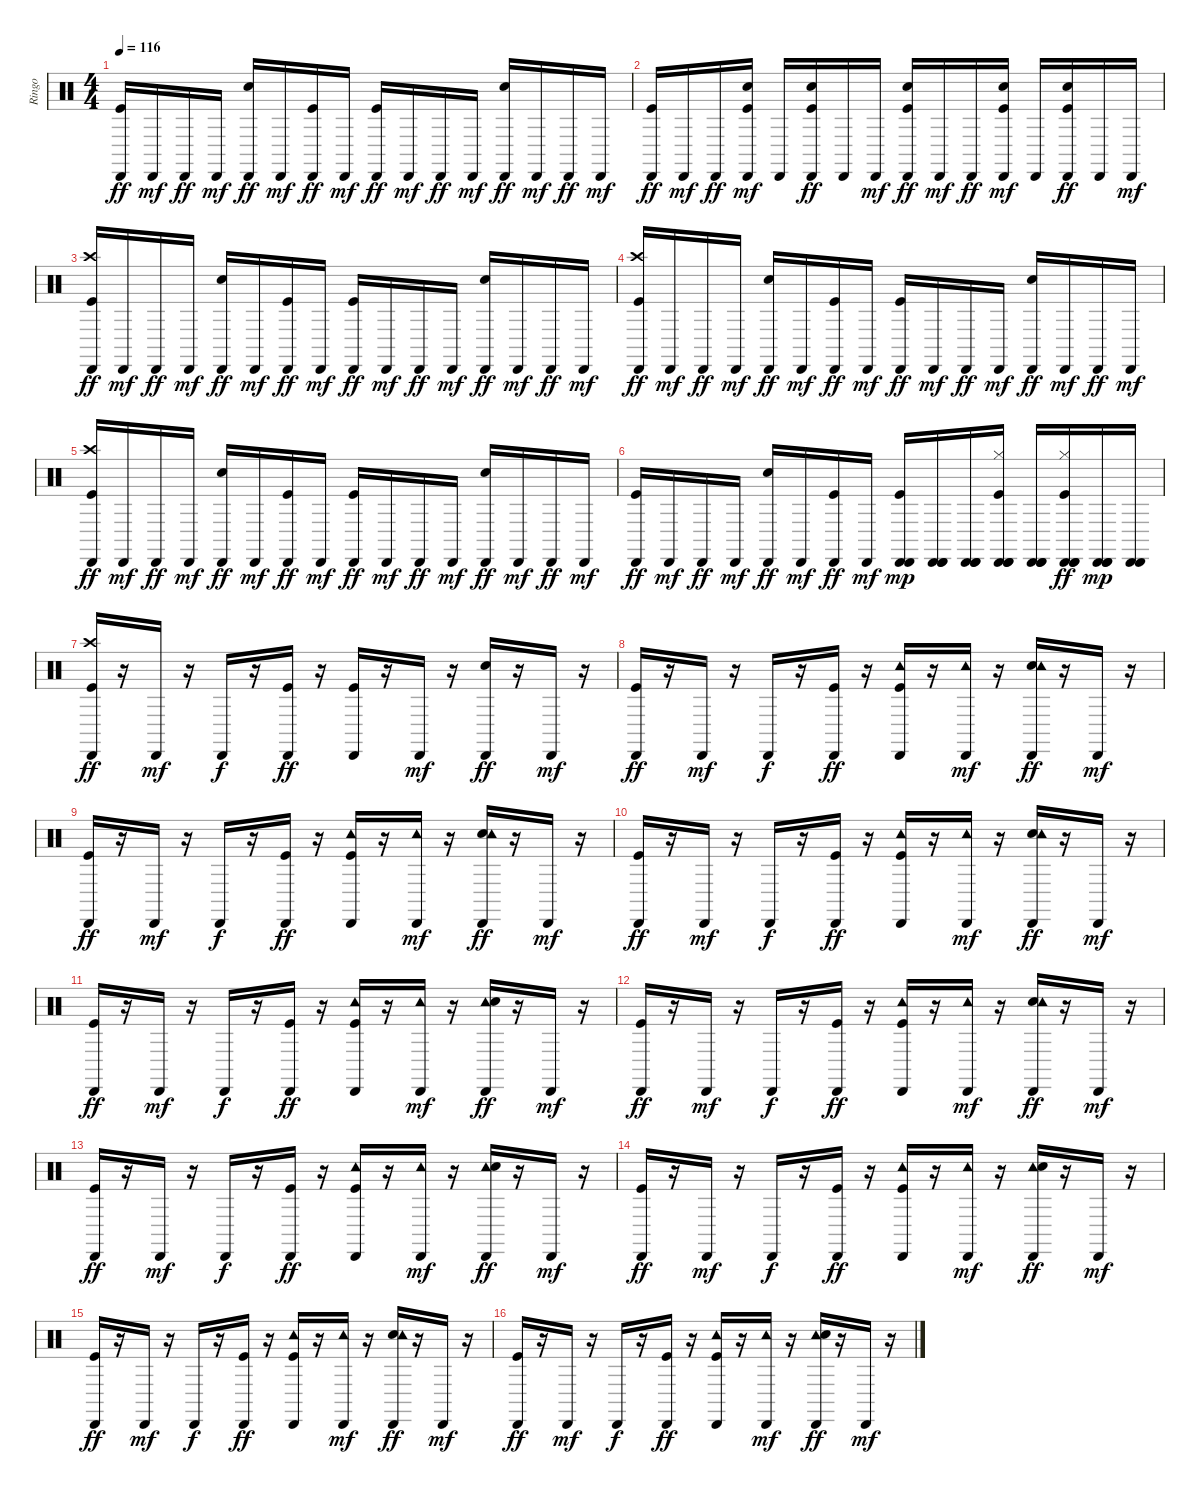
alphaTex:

\track ("Ringo" "Ringo") {instrument percussion}
\staff {score}
\articulation defaults
\ts (4 4)
\tempo 116
\clef neutral
\ks c
("Cabasa (hit)" "Kick (hit)").16{dy ff} "Cabasa (hit)".16{dy mf} "Cabasa (hit)".16{dy ff} "Cabasa (hit)".16{dy mf} ("Cabasa (hit)" "Snare (hit) 2").16{dy ff} "Cabasa (hit)".16{dy mf} ("Cabasa (hit)" "Kick (hit)").16{dy ff} "Cabasa (hit)".16{dy mf} ("Cabasa (hit)" "Kick (hit)").16{dy ff} "Cabasa (hit)".16{dy mf} "Cabasa (hit)".16{dy ff} "Cabasa (hit)".16{dy mf} ("Cabasa (hit)" "Snare (hit) 2").16{dy ff} "Cabasa (hit)".16{dy mf} "Cabasa (hit)".16{dy ff} "Cabasa (hit)".16{dy mf} |
("Cabasa (hit)" "Kick (hit)").16{dy ff} "Cabasa (hit)".16{dy mf} "Cabasa (hit)".16{dy ff} ("Kick (hit)" "Snare (hit) 2" "Cabasa (hit)").16{dy mf} "Cabasa (hit)".16 ("Cabasa (hit)" "Kick (hit)" "Snare (hit) 2").16{dy ff} "Cabasa (hit)".16 "Cabasa (hit)".16{dy mf} ("Cabasa (hit)" "Kick (hit)" "Snare (hit) 2").16{dy ff} "Cabasa (hit)".16{dy mf} "Cabasa (hit)".16{dy ff} ("Kick (hit)" "Snare (hit) 2" "Cabasa (hit)").16{dy mf} "Cabasa (hit)".16 ("Cabasa (hit)" "Kick (hit)" "Snare (hit) 2").16{dy ff} "Cabasa (hit)".16 "Cabasa (hit)".16{dy mf} |
("Cabasa (hit)" "Crash high (hit)" "Kick (hit)").16{dy ff} "Cabasa (hit)".16{dy mf} "Cabasa (hit)".16{dy ff} "Cabasa (hit)".16{dy mf} ("Cabasa (hit)" "Snare (hit) 2").16{dy ff} "Cabasa (hit)".16{dy mf} ("Cabasa (hit)" "Kick (hit)").16{dy ff} "Cabasa (hit)".16{dy mf} ("Cabasa (hit)" "Kick (hit)").16{dy ff} "Cabasa (hit)".16{dy mf} "Cabasa (hit)".16{dy ff} "Cabasa (hit)".16{dy mf} ("Cabasa (hit)" "Snare (hit) 2").16{dy ff} "Cabasa (hit)".16{dy mf} "Cabasa (hit)".16{dy ff} "Cabasa (hit)".16{dy mf} |
("Cabasa (hit)" "Crash high (hit)" "Kick (hit)").16{dy ff} "Cabasa (hit)".16{dy mf} "Cabasa (hit)".16{dy ff} "Cabasa (hit)".16{dy mf} ("Cabasa (hit)" "Snare (hit) 2").16{dy ff} "Cabasa (hit)".16{dy mf} ("Cabasa (hit)" "Kick (hit)").16{dy ff} "Cabasa (hit)".16{dy mf} ("Cabasa (hit)" "Kick (hit)").16{dy ff} "Cabasa (hit)".16{dy mf} "Cabasa (hit)".16{dy ff} "Cabasa (hit)".16{dy mf} ("Cabasa (hit)" "Snare (hit) 2").16{dy ff} "Cabasa (hit)".16{dy mf} "Cabasa (hit)".16{dy ff} "Cabasa (hit)".16{dy mf} |
("Cabasa (hit)" "Kick (hit)" "Crash high (hit)").16{dy ff} "Cabasa (hit)".16{dy mf} "Cabasa (hit)".16{dy ff} "Cabasa (hit)".16{dy mf} ("Cabasa (hit)" "Snare (hit) 2").16{dy ff} "Cabasa (hit)".16{dy mf} ("Cabasa (hit)" "Kick (hit)").16{dy ff} "Cabasa (hit)".16{dy mf} ("Cabasa (hit)" "Kick (hit)").16{dy ff} "Cabasa (hit)".16{dy mf} "Cabasa (hit)".16{dy ff} "Cabasa (hit)".16{dy mf} ("Cabasa (hit)" "Snare (hit) 2").16{dy ff} "Cabasa (hit)".16{dy mf} "Cabasa (hit)".16{dy ff} "Cabasa (hit)".16{dy mf} |
("Cabasa (hit)" "Kick (hit)").16{dy ff} "Cabasa (hit)".16{dy mf} "Cabasa (hit)".16{dy ff} "Cabasa (hit)".16{dy mf} ("Cabasa (hit)" "Snare (hit) 2").16{dy ff} "Cabasa (hit)".16{dy mf} ("Cabasa (hit)" "Kick (hit)").16{dy ff} "Cabasa (hit)".16{dy mf} ("Cabasa (hit)" "Kick (hit)" "Cabasa (hit)").16{dy mp} ("Cabasa (hit)" "Cabasa (hit)" "Cabasa (hit)").16 ("Cabasa (hit)" "Cabasa (hit)" "Cabasa (hit)").16 ("Cabasa (hit)" "Kick (hit)" "Hi-Hat (closed)" "Cabasa (hit)" "Cabasa (hit)").16 ("Cabasa (hit)" "Cabasa (hit)" "Cabasa (hit)").16 ("Cabasa (hit)" "Cabasa (hit)" "Cabasa (hit)" "Hi-Hat (closed)" "Kick (hit)").16{dy ff} ("Cabasa (hit)" "Cabasa (hit)" "Cabasa (hit)").16{dy mp} ("Cabasa (hit)" "Cabasa (hit)").16 |
("Cabasa (hit)" "Crash high (hit)" "Kick (hit)").16{dy ff} r.16 "Cabasa (hit)".16{dy mf} r.16 "Cabasa (hit)".16{dy f} r.16 ("Cabasa (hit)" "Kick (hit)").16{dy ff} r.16 ("Cabasa (hit)" "Kick (hit)").16 r.16 "Cabasa (hit)".16{dy mf} r.16 ("Cabasa (hit)" "Snare (hit) 2").16{dy ff} r.16 "Cabasa (hit)".16{dy mf} r.16 |
("Cabasa (hit)" "Kick (hit)").16{dy ff} r.16 "Cabasa (hit)".16{dy mf} r.16 "Cabasa (hit)".16{dy f} r.16 ("Cabasa (hit)" "Kick (hit)").16{dy ff} r.16 ("Cabasa (hit)" "Kick (hit)" "Tambourine (hit)").16 r.16 ("Cabasa (hit)" "Tambourine (hit)").16{dy mf} r.16 ("Cabasa (hit)" "Snare (hit) 2" "Tambourine (hit)").16{dy ff} r.16 "Cabasa (hit)".16{dy mf} r.16 |
("Cabasa (hit)" "Kick (hit)").16{dy ff} r.16 "Cabasa (hit)".16{dy mf} r.16 "Cabasa (hit)".16{dy f} r.16 ("Cabasa (hit)" "Kick (hit)").16{dy ff} r.16 ("Cabasa (hit)" "Tambourine (hit)" "Kick (hit)").16 r.16 ("Cabasa (hit)" "Tambourine (hit)").16{dy mf} r.16 ("Cabasa (hit)" "Snare (hit) 2" "Tambourine (hit)").16{dy ff} r.16 "Cabasa (hit)".16{dy mf} r.16 |
("Cabasa (hit)" "Kick (hit)").16{dy ff} r.16 "Cabasa (hit)".16{dy mf} r.16 "Cabasa (hit)".16{dy f} r.16 ("Cabasa (hit)" "Kick (hit)").16{dy ff} r.16 ("Cabasa (hit)" "Tambourine (hit)" "Kick (hit)").16 r.16 ("Cabasa (hit)" "Tambourine (hit)").16{dy mf} r.16 ("Cabasa (hit)" "Snare (hit) 2" "Tambourine (hit)").16{dy ff} r.16 "Cabasa (hit)".16{dy mf} r.16 |
("Cabasa (hit)" "Kick (hit)").16{dy ff} r.16 "Cabasa (hit)".16{dy mf} r.16 "Cabasa (hit)".16{dy f} r.16 ("Cabasa (hit)" "Kick (hit)").16{dy ff} r.16 ("Cabasa (hit)" "Tambourine (hit)" "Kick (hit)").16 r.16 ("Cabasa (hit)" "Tambourine (hit)").16{dy mf} r.16 ("Cabasa (hit)" "Tambourine (hit)" "Snare (hit) 2").16{dy ff} r.16 "Cabasa (hit)".16{dy mf} r.16 |
("Cabasa (hit)" "Kick (hit)").16{dy ff} r.16 "Cabasa (hit)".16{dy mf} r.16 "Cabasa (hit)".16{dy f} r.16 ("Cabasa (hit)" "Kick (hit)").16{dy ff} r.16 ("Cabasa (hit)" "Kick (hit)" "Tambourine (hit)").16 r.16 ("Cabasa (hit)" "Tambourine (hit)").16{dy mf} r.16 ("Cabasa (hit)" "Snare (hit) 2" "Tambourine (hit)").16{dy ff} r.16 "Cabasa (hit)".16{dy mf} r.16 |
("Cabasa (hit)" "Kick (hit)").16{dy ff} r.16 "Cabasa (hit)".16{dy mf} r.16 "Cabasa (hit)".16{dy f} r.16 ("Cabasa (hit)" "Kick (hit)").16{dy ff} r.16 ("Cabasa (hit)" "Tambourine (hit)" "Kick (hit)").16 r.16 ("Cabasa (hit)" "Tambourine (hit)").16{dy mf} r.16 ("Cabasa (hit)" "Tambourine (hit)" "Snare (hit) 2").16{dy ff} r.16 "Cabasa (hit)".16{dy mf} r.16 |
("Cabasa (hit)" "Kick (hit)").16{dy ff} r.16 "Cabasa (hit)".16{dy mf} r.16 "Cabasa (hit)".16{dy f} r.16 ("Cabasa (hit)" "Kick (hit)").16{dy ff} r.16 ("Cabasa (hit)" "Kick (hit)" "Tambourine (hit)").16 r.16 ("Cabasa (hit)" "Tambourine (hit)").16{dy mf} r.16 ("Cabasa (hit)" "Tambourine (hit)" "Snare (hit) 2").16{dy ff} r.16 "Cabasa (hit)".16{dy mf} r.16 |
("Cabasa (hit)" "Kick (hit)").16{dy ff} r.16 "Cabasa (hit)".16{dy mf} r.16 "Cabasa (hit)".16{dy f} r.16 ("Cabasa (hit)" "Kick (hit)").16{dy ff} r.16 ("Cabasa (hit)" "Kick (hit)" "Tambourine (hit)").16 r.16 ("Cabasa (hit)" "Tambourine (hit)").16{dy mf} r.16 ("Cabasa (hit)" "Snare (hit) 2" "Tambourine (hit)").16{dy ff} r.16 "Cabasa (hit)".16{dy mf} r.16 |
("Cabasa (hit)" "Kick (hit)").16{dy ff} r.16 "Cabasa (hit)".16{dy mf} r.16 "Cabasa (hit)".16{dy f} r.16 ("Cabasa (hit)" "Kick (hit)").16{dy ff} r.16 ("Cabasa (hit)" "Kick (hit)" "Tambourine (hit)").16 r.16 ("Cabasa (hit)" "Tambourine (hit)").16{dy mf} r.16 ("Cabasa (hit)" "Tambourine (hit)" "Snare (hit) 2").16{dy ff} r.16 "Cabasa (hit)".16{dy mf} r.16
